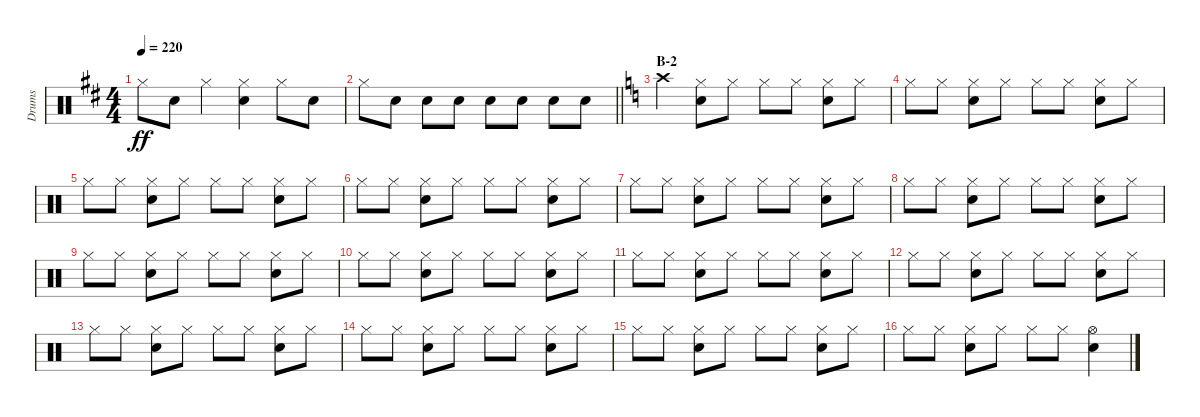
\track ("Drums" "Drums") {instrument percussion}
\staff {score}
\articulation defaults
\ts (4 4)
\tempo 220
\clef neutral
\ks d "Hi-Hat (closed)".8{dy ff} "Snare (hit) 2".8 "Hi-Hat (closed)".4
("Hi-Hat (closed)" "Snare (hit) 2").4 "Hi-Hat (closed)".8 "Snare (hit) 2".8 |
\barLineRight lightlight "Hi-Hat (closed)".8 "Snare (hit) 2".8 "Snare (hit) 2".8 "Snare (hit) 2".8 "Snare (hit) 2".8 "Snare (hit) 2".8 "Snare (hit) 2".8 "Snare (hit) 2".8
|
\section ("" "B-2")
\ks c "Crash high (hit)".4
("Hi-Hat (closed)" "Snare (hit) 2").8 "Hi-Hat (closed)".8 "Hi-Hat (closed)".8 "Hi-Hat (closed)".8 ("Hi-Hat (closed)" "Snare (hit) 2").8 "Hi-Hat (closed)".8 |
"Hi-Hat (closed)".8 "Hi-Hat (closed)".8 ("Hi-Hat (closed)" "Snare (hit) 2").8 "Hi-Hat (closed)".8 "Hi-Hat (closed)".8 "Hi-Hat (closed)".8 ("Hi-Hat (closed)" "Snare (hit) 2").8 "Hi-Hat (closed)".8 |
"Hi-Hat (closed)".8 "Hi-Hat (closed)".8 ("Hi-Hat (closed)" "Snare (hit) 2").8 "Hi-Hat (closed)".8 "Hi-Hat (closed)".8 "Hi-Hat (closed)".8 ("Hi-Hat (closed)" "Snare (hit) 2").8 "Hi-Hat (closed)".8 |
"Hi-Hat (closed)".8 "Hi-Hat (closed)".8 ("Hi-Hat (closed)" "Snare (hit) 2").8 "Hi-Hat (closed)".8 "Hi-Hat (closed)".8 "Hi-Hat (closed)".8 ("Hi-Hat (closed)" "Snare (hit) 2").8 "Hi-Hat (closed)".8 |
"Hi-Hat (closed)".8 "Hi-Hat (closed)".8 ("Hi-Hat (closed)" "Snare (hit) 2").8 "Hi-Hat (closed)".8 "Hi-Hat (closed)".8 "Hi-Hat (closed)".8 ("Hi-Hat (closed)" "Snare (hit) 2").8 "Hi-Hat (closed)".8 |
"Hi-Hat (closed)".8 "Hi-Hat (closed)".8 ("Hi-Hat (closed)" "Snare (hit) 2").8 "Hi-Hat (closed)".8 "Hi-Hat (closed)".8 "Hi-Hat (closed)".8 ("Hi-Hat (closed)" "Snare (hit) 2").8 "Hi-Hat (closed)".8 |
"Hi-Hat (closed)".8 "Hi-Hat (closed)".8 ("Hi-Hat (closed)" "Snare (hit) 2").8 "Hi-Hat (closed)".8 "Hi-Hat (closed)".8 "Hi-Hat (closed)".8 ("Hi-Hat (closed)" "Snare (hit) 2").8 "Hi-Hat (closed)".8 |
"Hi-Hat (closed)".8 "Hi-Hat (closed)".8 ("Hi-Hat (closed)" "Snare (hit) 2").8 "Hi-Hat (closed)".8 "Hi-Hat (closed)".8 "Hi-Hat (closed)".8 ("Hi-Hat (closed)" "Snare (hit) 2").8 "Hi-Hat (closed)".8 |
"Hi-Hat (closed)".8 "Hi-Hat (closed)".8 ("Hi-Hat (closed)" "Snare (hit) 2").8 "Hi-Hat (closed)".8 "Hi-Hat (closed)".8 "Hi-Hat (closed)".8 ("Hi-Hat (closed)" "Snare (hit) 2").8 "Hi-Hat (closed)".8 |
"Hi-Hat (closed)".8 "Hi-Hat (closed)".8 ("Hi-Hat (closed)" "Snare (hit) 2").8 "Hi-Hat (closed)".8 "Hi-Hat (closed)".8 "Hi-Hat (closed)".8 ("Hi-Hat (closed)" "Snare (hit) 2").8 "Hi-Hat (closed)".8 |
"Hi-Hat (closed)".8 "Hi-Hat (closed)".8 ("Hi-Hat (closed)" "Snare (hit) 2").8 "Hi-Hat (closed)".8 "Hi-Hat (closed)".8 "Hi-Hat (closed)".8 ("Hi-Hat (closed)" "Snare (hit) 2").8 "Hi-Hat (closed)".8 |
"Hi-Hat (closed)".8 "Hi-Hat (closed)".8 ("Hi-Hat (closed)" "Snare (hit) 2").8 "Hi-Hat (closed)".8 "Hi-Hat (closed)".8 "Hi-Hat (closed)".8 ("Hi-Hat (closed)" "Snare (hit) 2").8 "Hi-Hat (closed)".8 |
"Hi-Hat (closed)".8 "Hi-Hat (closed)".8 ("Hi-Hat (closed)" "Snare (hit) 2").8 "Hi-Hat (closed)".8 "Hi-Hat (closed)".8 "Hi-Hat (closed)".8 ("Hi-Hat (closed)" "Snare (hit) 2").8 "Hi-Hat (closed)".8 |
"Hi-Hat (closed)".8 "Hi-Hat (closed)".8 ("Hi-Hat (closed)" "Snare (hit) 2").8 "Hi-Hat (closed)".8 "Hi-Hat (closed)".8 "Hi-Hat (closed)".8 ("Snare (hit) 2" "Hi-Hat (open)").4
